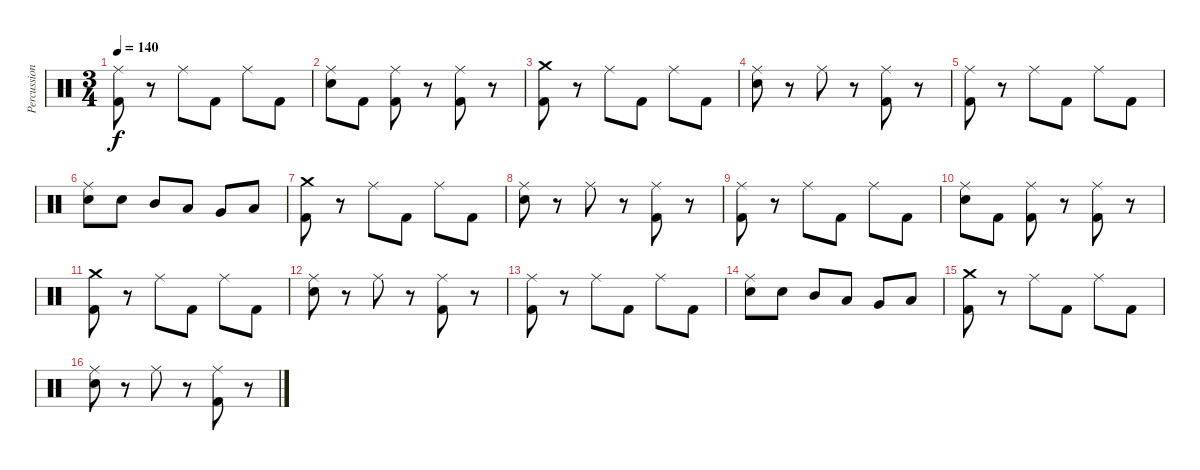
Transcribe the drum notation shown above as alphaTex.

\track ("Percussion" "Percussion") {instrument percussion}
\staff {score}
\articulation defaults
\ts (3 4)
\tempo 140
\clef neutral
\ks c
("Ride (middle)" "Kick (hit) 2").8{dy f} r.8 "Ride (middle)".8 "Kick (hit) 2".8 "Ride (middle)".8 "Kick (hit) 2".8 |
("Ride (middle)" "Electric Snare (hit)").8 "Kick (hit) 2".8 ("Ride (middle)" "Kick (hit) 2").8 r.8 ("Ride (middle)" "Kick (hit) 2").8 r.8 |
("Crash medium (hit)" "Kick (hit) 2").8 r.8 "Ride (middle)".8 "Kick (hit) 2".8 "Ride (middle)".8 "Kick (hit) 2".8 |
("Ride (middle)" "Electric Snare (hit)").8 r.8 "Ride (middle)".8 r.8 ("Ride (middle)" "Kick (hit) 2").8 r.8 |
("Ride (middle)" "Kick (hit) 2").8 r.8 "Ride (middle)".8 "Kick (hit) 2".8 "Ride (middle)".8 "Kick (hit) 2".8 |
("Ride (middle)" "Electric Snare (hit)").8 "Electric Snare (hit)".8 "Mid Tom (hit)".8 "Low Tom (hit)".8 "Very Low Tom (hit)".8 "Low Floor Tom (hit)".8 |
("Crash medium (hit)" "Kick (hit) 2").8 r.8 "Ride (middle)".8 "Kick (hit) 2".8 "Ride (middle)".8 "Kick (hit) 2".8 |
("Ride (middle)" "Electric Snare (hit)").8 r.8 "Ride (middle)".8 r.8 ("Ride (middle)" "Kick (hit) 2").8 r.8 |
("Ride (middle)" "Kick (hit) 2").8 r.8 "Ride (middle)".8 "Kick (hit) 2".8 "Ride (middle)".8 "Kick (hit) 2".8 |
("Ride (middle)" "Electric Snare (hit)").8 "Kick (hit) 2".8 ("Ride (middle)" "Kick (hit) 2").8 r.8 ("Ride (middle)" "Kick (hit) 2").8 r.8 |
("Crash medium (hit)" "Kick (hit) 2").8 r.8 "Ride (middle)".8 "Kick (hit) 2".8 "Ride (middle)".8 "Kick (hit) 2".8 |
("Ride (middle)" "Electric Snare (hit)").8 r.8 "Ride (middle)".8 r.8 ("Ride (middle)" "Kick (hit) 2").8 r.8 |
("Ride (middle)" "Kick (hit) 2").8 r.8 "Ride (middle)".8 "Kick (hit) 2".8 "Ride (middle)".8 "Kick (hit) 2".8 |
("Ride (middle)" "Electric Snare (hit)").8 "Electric Snare (hit)".8 "Mid Tom (hit)".8 "Low Tom (hit)".8 "Very Low Tom (hit)".8 "Low Floor Tom (hit)".8 |
("Crash medium (hit)" "Kick (hit) 2").8 r.8 "Ride (middle)".8 "Kick (hit) 2".8 "Ride (middle)".8 "Kick (hit) 2".8 |
("Ride (middle)" "Electric Snare (hit)").8 r.8 "Ride (middle)".8 r.8 ("Ride (middle)" "Kick (hit) 2").8 r.8
